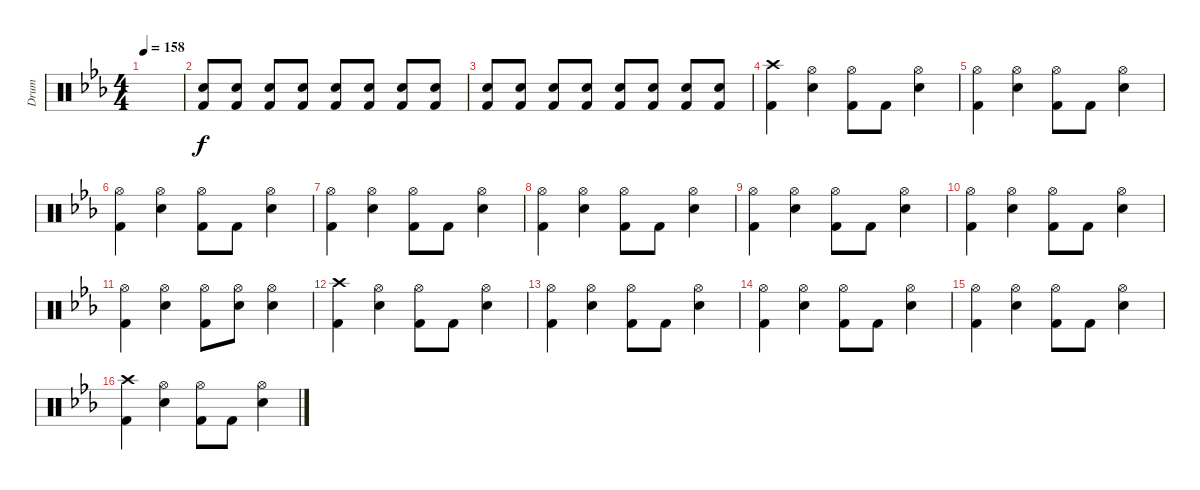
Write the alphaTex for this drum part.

\track ("Drum" "Drum") {instrument percussion}
\staff {score}
\articulation defaults
\ts (4 4)
\tempo 158
\clef neutral
\ks eb
|
("Snare (hit) 2" "Kick (hit) 2").8 ("Snare (hit) 2" "Kick (hit) 2").8 ("Snare (hit) 2" "Kick (hit) 2").8 ("Snare (hit) 2" "Kick (hit) 2").8 ("Snare (hit) 2" "Kick (hit) 2").8 ("Snare (hit) 2" "Kick (hit) 2").8 ("Snare (hit) 2" "Kick (hit) 2").8 ("Snare (hit) 2" "Kick (hit) 2").8 |
("Snare (hit) 2" "Kick (hit) 2").8 ("Snare (hit) 2" "Kick (hit) 2").8 ("Snare (hit) 2" "Kick (hit) 2").8 ("Snare (hit) 2" "Kick (hit) 2").8 ("Snare (hit) 2" "Kick (hit) 2").8 ("Snare (hit) 2" "Kick (hit) 2").8 ("Snare (hit) 2" "Kick (hit) 2").8 ("Snare (hit) 2" "Kick (hit) 2").8 |
("Crash high (hit)" "Kick (hit) 2").4 ("Hi-Hat (open)" "Snare (hit) 2").4 ("Hi-Hat (open)" "Kick (hit) 2").8 "Kick (hit) 2".8 ("Hi-Hat (open)" "Snare (hit) 2").4 |
("Hi-Hat (open)" "Kick (hit) 2").4 ("Hi-Hat (open)" "Snare (hit) 2").4 ("Hi-Hat (open)" "Kick (hit) 2").8 "Kick (hit) 2".8 ("Hi-Hat (open)" "Snare (hit) 2").4 |
("Hi-Hat (open)" "Kick (hit) 2").4 ("Hi-Hat (open)" "Snare (hit) 2").4 ("Hi-Hat (open)" "Kick (hit) 2").8 "Kick (hit) 2".8 ("Hi-Hat (open)" "Snare (hit) 2").4 |
("Hi-Hat (open)" "Kick (hit) 2").4 ("Hi-Hat (open)" "Snare (hit) 2").4 ("Hi-Hat (open)" "Kick (hit) 2").8 "Kick (hit) 2".8 ("Hi-Hat (open)" "Snare (hit) 2").4 |
("Hi-Hat (open)" "Kick (hit) 2").4 ("Hi-Hat (open)" "Snare (hit) 2").4 ("Hi-Hat (open)" "Kick (hit) 2").8 "Kick (hit) 2".8 ("Hi-Hat (open)" "Snare (hit) 2").4 |
("Hi-Hat (open)" "Kick (hit) 2").4 ("Hi-Hat (open)" "Snare (hit) 2").4 ("Hi-Hat (open)" "Kick (hit) 2").8 "Kick (hit) 2".8 ("Hi-Hat (open)" "Snare (hit) 2").4 |
("Hi-Hat (open)" "Kick (hit) 2").4 ("Hi-Hat (open)" "Snare (hit) 2").4 ("Hi-Hat (open)" "Kick (hit) 2").8 "Kick (hit) 2".8 ("Hi-Hat (open)" "Snare (hit) 2").4 |
("Hi-Hat (open)" "Kick (hit) 2").4 ("Hi-Hat (open)" "Snare (hit) 2").4 ("Hi-Hat (open)" "Kick (hit) 2").8 ("Hi-Hat (open)" "Snare (hit) 2").8 ("Hi-Hat (open)" "Snare (hit) 2").4 |
("Crash high (hit)" "Kick (hit) 2").4 ("Hi-Hat (open)" "Snare (hit) 2").4 ("Hi-Hat (open)" "Kick (hit) 2").8 "Kick (hit) 2".8 ("Hi-Hat (open)" "Snare (hit) 2").4 |
("Hi-Hat (open)" "Kick (hit) 2").4 ("Hi-Hat (open)" "Snare (hit) 2").4 ("Hi-Hat (open)" "Kick (hit) 2").8 "Kick (hit) 2".8 ("Hi-Hat (open)" "Snare (hit) 2").4 |
("Hi-Hat (open)" "Kick (hit) 2").4 ("Hi-Hat (open)" "Snare (hit) 2").4 ("Hi-Hat (open)" "Kick (hit) 2").8 "Kick (hit) 2".8 ("Hi-Hat (open)" "Snare (hit) 2").4 |
("Hi-Hat (open)" "Kick (hit) 2").4 ("Hi-Hat (open)" "Snare (hit) 2").4 ("Hi-Hat (open)" "Kick (hit) 2").8 "Kick (hit) 2".8 ("Hi-Hat (open)" "Snare (hit) 2").4 |
("Crash high (hit)" "Kick (hit) 2").4 ("Hi-Hat (open)" "Snare (hit) 2").4 ("Hi-Hat (open)" "Kick (hit) 2").8 "Kick (hit) 2".8 ("Hi-Hat (open)" "Snare (hit) 2").4
